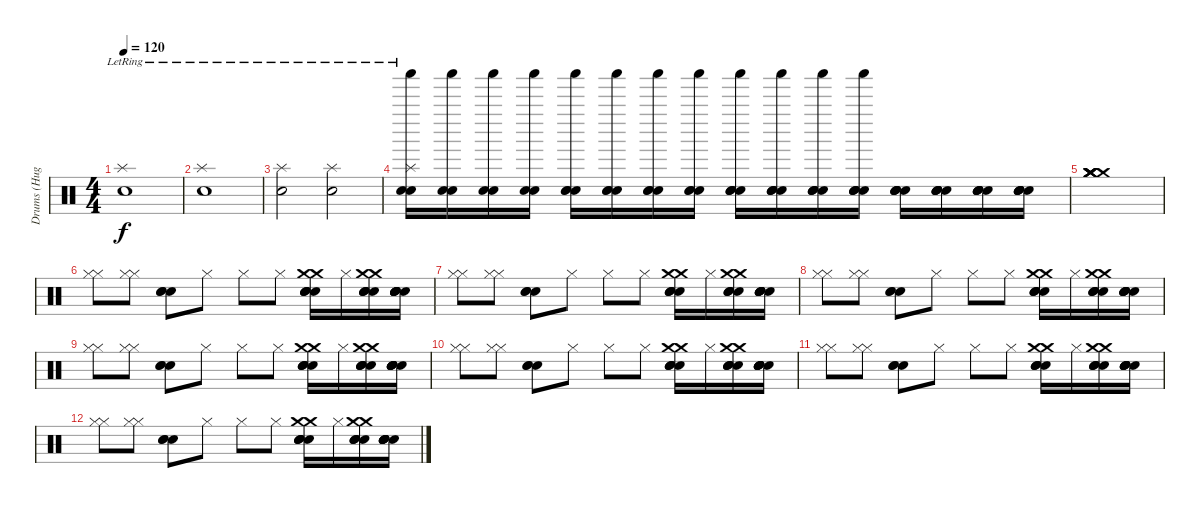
\track ("Drums (Hugo)" "Drums (Hug") {instrument percussion}
\staff {score}
\articulation defaults
\ts (4 4)
\tempo 120
\clef neutral
\ks c
("Splash (hit)"{lr} "Electric Snare (hit)").1{dy f} |
("Splash (hit)"{lr} "Electric Snare (hit)").1 |
("Splash (hit)"{lr} "Electric Snare (hit)").2 ("Splash (hit)"{lr} "Electric Snare (hit)").2 |
("Splash (hit)"{lr} "Electric Snare (hit)" "Electric Snare (hit)" "Shaker (hit)").16 ("Shaker (hit)" "Electric Snare (hit)" "Electric Snare (hit)").16 ("Shaker (hit)" "Electric Snare (hit)" "Electric Snare (hit)").16 ("Shaker (hit)" "Electric Snare (hit)" "Electric Snare (hit)").16 ("Shaker (hit)" "Electric Snare (hit)" "Electric Snare (hit)" "Electric Snare (hit)").16 ("Shaker (hit)" "Electric Snare (hit)" "Electric Snare (hit)" "Electric Snare (hit)").16 ("Shaker (hit)" "Electric Snare (hit)" "Electric Snare (hit)" "Electric Snare (hit)").16 ("Shaker (hit)" "Electric Snare (hit)" "Electric Snare (hit)" "Electric Snare (hit)").16 ("Shaker (hit)" "Electric Snare (hit)" "Electric Snare (hit)" "Electric Snare (hit)" "Electric Snare (hit)").16 ("Shaker (hit)" "Electric Snare (hit)" "Electric Snare (hit)" "Electric Snare (hit)" "Electric Snare (hit)").16 ("Shaker (hit)" "Electric Snare (hit)" "Electric Snare (hit)" "Electric Snare (hit)" "Electric Snare (hit)").16 ("Shaker (hit)" "Electric Snare (hit)" "Electric Snare (hit)" "Electric Snare (hit)" "Electric Snare (hit)").16 ("Electric Snare (hit)" "Electric Snare (hit)" "Electric Snare (hit)" "Electric Snare (hit)" "Electric Snare (hit)").16 ("Electric Snare (hit)" "Electric Snare (hit)" "Electric Snare (hit)" "Electric Snare (hit)" "Electric Snare (hit)").16 ("Electric Snare (hit)" "Electric Snare (hit)" "Electric Snare (hit)" "Electric Snare (hit)" "Electric Snare (hit)").16 ("Electric Snare (hit)" "Electric Snare (hit)" "Electric Snare (hit)" "Electric Snare (hit)" "Electric Snare (hit)").16 |
("Crash medium (hit)" "Crash medium (hit)" "Crash medium (hit)" "Crash medium (hit)" "Crash medium (hit)" "Crash medium (hit)").1{volume 16} |
("Hi-Hat (closed)" "Hi-Hat (closed)").8{volume 6} ("Hi-Hat (closed)" "Hi-Hat (closed)").8 ("Electric Snare (hit)" "Electric Snare (hit)" "Electric Snare (hit)").8 "Hi-Hat (closed)".8 "Hi-Hat (closed)".8 "Hi-Hat (closed)".8 ("Crash medium (hit)" "Electric Snare (hit)" "Electric Snare (hit)" "Electric Snare (hit)" "Electric Snare (hit)" "Crash medium (hit)").16 "Hi-Hat (closed)".16 ("Electric Snare (hit)" "Electric Snare (hit)" "Crash medium (hit)" "Crash medium (hit)" "Electric Snare (hit)" "Electric Snare (hit)").16 ("Electric Snare (hit)" "Electric Snare (hit)" "Electric Snare (hit)" "Electric Snare (hit)" "Electric Snare (hit)" "Electric Snare (hit)").16 |
("Hi-Hat (closed)" "Hi-Hat (closed)").8{volume 6} ("Hi-Hat (closed)" "Hi-Hat (closed)").8 ("Electric Snare (hit)" "Electric Snare (hit)" "Electric Snare (hit)").8 "Hi-Hat (closed)".8 "Hi-Hat (closed)".8 "Hi-Hat (closed)".8 ("Crash medium (hit)" "Electric Snare (hit)" "Electric Snare (hit)" "Electric Snare (hit)" "Electric Snare (hit)" "Crash medium (hit)").16 "Hi-Hat (closed)".16 ("Electric Snare (hit)" "Electric Snare (hit)" "Crash medium (hit)" "Crash medium (hit)" "Electric Snare (hit)" "Electric Snare (hit)").16 ("Electric Snare (hit)" "Electric Snare (hit)" "Electric Snare (hit)" "Electric Snare (hit)" "Electric Snare (hit)" "Electric Snare (hit)").16 |
("Hi-Hat (closed)" "Hi-Hat (closed)").8{volume 6} ("Hi-Hat (closed)" "Hi-Hat (closed)").8 ("Electric Snare (hit)" "Electric Snare (hit)" "Electric Snare (hit)").8 "Hi-Hat (closed)".8 "Hi-Hat (closed)".8 "Hi-Hat (closed)".8 ("Crash medium (hit)" "Electric Snare (hit)" "Electric Snare (hit)" "Electric Snare (hit)" "Electric Snare (hit)" "Crash medium (hit)").16 "Hi-Hat (closed)".16 ("Electric Snare (hit)" "Electric Snare (hit)" "Crash medium (hit)" "Crash medium (hit)" "Electric Snare (hit)" "Electric Snare (hit)").16 ("Electric Snare (hit)" "Electric Snare (hit)" "Electric Snare (hit)" "Electric Snare (hit)" "Electric Snare (hit)" "Electric Snare (hit)").16 |
("Hi-Hat (closed)" "Hi-Hat (closed)").8{volume 6} ("Hi-Hat (closed)" "Hi-Hat (closed)").8 ("Electric Snare (hit)" "Electric Snare (hit)" "Electric Snare (hit)").8 "Hi-Hat (closed)".8 "Hi-Hat (closed)".8 "Hi-Hat (closed)".8 ("Crash medium (hit)" "Electric Snare (hit)" "Electric Snare (hit)" "Electric Snare (hit)" "Electric Snare (hit)" "Crash medium (hit)").16 "Hi-Hat (closed)".16 ("Electric Snare (hit)" "Electric Snare (hit)" "Crash medium (hit)" "Crash medium (hit)" "Electric Snare (hit)" "Electric Snare (hit)").16 ("Electric Snare (hit)" "Electric Snare (hit)" "Electric Snare (hit)" "Electric Snare (hit)" "Electric Snare (hit)" "Electric Snare (hit)").16 |
("Hi-Hat (closed)" "Hi-Hat (closed)").8{volume 6} ("Hi-Hat (closed)" "Hi-Hat (closed)").8 ("Electric Snare (hit)" "Electric Snare (hit)" "Electric Snare (hit)").8 "Hi-Hat (closed)".8 "Hi-Hat (closed)".8 "Hi-Hat (closed)".8 ("Crash medium (hit)" "Electric Snare (hit)" "Electric Snare (hit)" "Electric Snare (hit)" "Electric Snare (hit)" "Crash medium (hit)").16 "Hi-Hat (closed)".16 ("Electric Snare (hit)" "Electric Snare (hit)" "Crash medium (hit)" "Crash medium (hit)" "Electric Snare (hit)" "Electric Snare (hit)").16 ("Electric Snare (hit)" "Electric Snare (hit)" "Electric Snare (hit)" "Electric Snare (hit)" "Electric Snare (hit)" "Electric Snare (hit)").16 |
("Hi-Hat (closed)" "Hi-Hat (closed)").8{volume 6} ("Hi-Hat (closed)" "Hi-Hat (closed)").8 ("Electric Snare (hit)" "Electric Snare (hit)" "Electric Snare (hit)").8 "Hi-Hat (closed)".8 "Hi-Hat (closed)".8 "Hi-Hat (closed)".8 ("Crash medium (hit)" "Electric Snare (hit)" "Electric Snare (hit)" "Electric Snare (hit)" "Electric Snare (hit)" "Crash medium (hit)").16 "Hi-Hat (closed)".16 ("Electric Snare (hit)" "Electric Snare (hit)" "Crash medium (hit)" "Crash medium (hit)" "Electric Snare (hit)" "Electric Snare (hit)").16 ("Electric Snare (hit)" "Electric Snare (hit)" "Electric Snare (hit)" "Electric Snare (hit)" "Electric Snare (hit)" "Electric Snare (hit)").16 |
("Hi-Hat (closed)" "Hi-Hat (closed)").8{volume 6} ("Hi-Hat (closed)" "Hi-Hat (closed)").8 ("Electric Snare (hit)" "Electric Snare (hit)" "Electric Snare (hit)").8 "Hi-Hat (closed)".8 "Hi-Hat (closed)".8 "Hi-Hat (closed)".8 ("Crash medium (hit)" "Electric Snare (hit)" "Electric Snare (hit)" "Electric Snare (hit)" "Electric Snare (hit)" "Crash medium (hit)").16 "Hi-Hat (closed)".16 ("Electric Snare (hit)" "Electric Snare (hit)" "Crash medium (hit)" "Crash medium (hit)" "Electric Snare (hit)" "Electric Snare (hit)").16 ("Electric Snare (hit)" "Electric Snare (hit)" "Electric Snare (hit)" "Electric Snare (hit)" "Electric Snare (hit)" "Electric Snare (hit)").16
